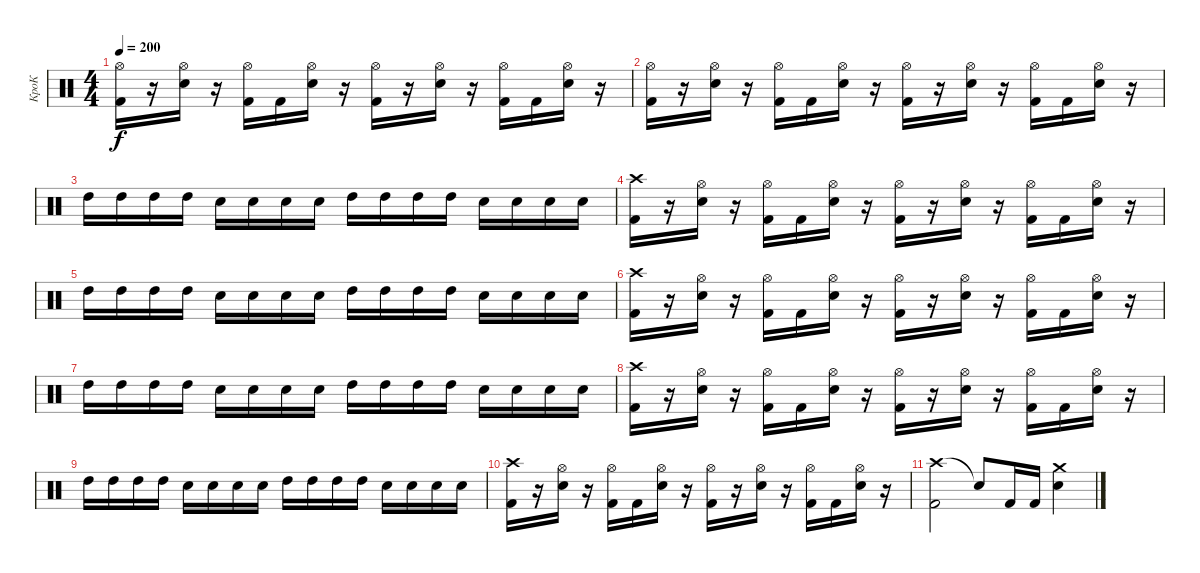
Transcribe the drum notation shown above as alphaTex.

\track ("КроК" "КроК") {instrument percussion}
\staff {score}
\articulation defaults
\ts (4 4)
\tempo 200
\clef neutral
\ks c
("Hi-Hat (open)" "Kick (hit) 2").16{dy f} r.16 ("Hi-Hat (open)" "Electric Snare (hit)").16 r.16 ("Hi-Hat (open)" "Kick (hit) 2").16 "Kick (hit) 2".16 ("Hi-Hat (open)" "Electric Snare (hit)").16 r.16 ("Hi-Hat (open)" "Kick (hit) 2").16 r.16 ("Hi-Hat (open)" "Electric Snare (hit)").16 r.16 ("Hi-Hat (open)" "Kick (hit) 2").16 "Kick (hit) 2".16 ("Hi-Hat (open)" "Electric Snare (hit)").16 r.16 |
("Hi-Hat (open)" "Kick (hit) 2").16 r.16 ("Hi-Hat (open)" "Electric Snare (hit)").16 r.16 ("Hi-Hat (open)" "Kick (hit) 2").16 "Kick (hit) 2".16 ("Hi-Hat (open)" "Electric Snare (hit)").16 r.16 ("Hi-Hat (open)" "Kick (hit) 2").16 r.16 ("Hi-Hat (open)" "Electric Snare (hit)").16 r.16 ("Hi-Hat (open)" "Kick (hit) 2").16 "Kick (hit) 2".16 ("Hi-Hat (open)" "Electric Snare (hit)").16 r.16 |
"High Tom (hit)".16 "High Tom (hit)".16 "High Tom (hit)".16 "High Tom (hit)".16 "Electric Snare (hit)".16 "Electric Snare (hit)".16 "Electric Snare (hit)".16 "Electric Snare (hit)".16 "High Tom (hit)".16 "High Tom (hit)".16 "High Tom (hit)".16 "High Tom (hit)".16 "Electric Snare (hit)".16 "Electric Snare (hit)".16 "Electric Snare (hit)".16 "Electric Snare (hit)".16 |
("Crash high (hit)" "Kick (hit) 2").16 r.16 ("Hi-Hat (open)" "Electric Snare (hit)").16 r.16 ("Hi-Hat (open)" "Kick (hit) 2").16 "Kick (hit) 2".16 ("Hi-Hat (open)" "Electric Snare (hit)").16 r.16 ("Hi-Hat (open)" "Kick (hit) 2").16 r.16 ("Hi-Hat (open)" "Electric Snare (hit)").16 r.16 ("Hi-Hat (open)" "Kick (hit) 2").16 "Kick (hit) 2".16 ("Hi-Hat (open)" "Electric Snare (hit)").16 r.16 |
"High Tom (hit)".16 "High Tom (hit)".16 "High Tom (hit)".16 "High Tom (hit)".16 "Electric Snare (hit)".16 "Electric Snare (hit)".16 "Electric Snare (hit)".16 "Electric Snare (hit)".16 "High Tom (hit)".16 "High Tom (hit)".16 "High Tom (hit)".16 "High Tom (hit)".16 "Electric Snare (hit)".16 "Electric Snare (hit)".16 "Electric Snare (hit)".16 "Electric Snare (hit)".16 |
("Crash high (hit)" "Kick (hit) 2").16 r.16 ("Hi-Hat (open)" "Electric Snare (hit)").16 r.16 ("Hi-Hat (open)" "Kick (hit) 2").16 "Kick (hit) 2".16 ("Hi-Hat (open)" "Electric Snare (hit)").16 r.16 ("Hi-Hat (open)" "Kick (hit) 2").16 r.16 ("Hi-Hat (open)" "Electric Snare (hit)").16 r.16 ("Hi-Hat (open)" "Kick (hit) 2").16 "Kick (hit) 2".16 ("Hi-Hat (open)" "Electric Snare (hit)").16 r.16 |
"High Tom (hit)".16 "High Tom (hit)".16 "High Tom (hit)".16 "High Tom (hit)".16 "Electric Snare (hit)".16 "Electric Snare (hit)".16 "Electric Snare (hit)".16 "Electric Snare (hit)".16 "High Tom (hit)".16 "High Tom (hit)".16 "High Tom (hit)".16 "High Tom (hit)".16 "Electric Snare (hit)".16 "Electric Snare (hit)".16 "Electric Snare (hit)".16 "Electric Snare (hit)".16 |
("Crash high (hit)" "Kick (hit) 2").16 r.16 ("Hi-Hat (open)" "Electric Snare (hit)").16 r.16 ("Hi-Hat (open)" "Kick (hit) 2").16 "Kick (hit) 2".16 ("Hi-Hat (open)" "Electric Snare (hit)").16 r.16 ("Hi-Hat (open)" "Kick (hit) 2").16 r.16 ("Hi-Hat (open)" "Electric Snare (hit)").16 r.16 ("Hi-Hat (open)" "Kick (hit) 2").16 "Kick (hit) 2".16 ("Hi-Hat (open)" "Electric Snare (hit)").16 r.16 |
"High Tom (hit)".16 "High Tom (hit)".16 "High Tom (hit)".16 "High Tom (hit)".16 "Electric Snare (hit)".16 "Electric Snare (hit)".16 "Electric Snare (hit)".16 "Electric Snare (hit)".16 "High Tom (hit)".16 "High Tom (hit)".16 "High Tom (hit)".16 "High Tom (hit)".16 "Electric Snare (hit)".16 "Electric Snare (hit)".16 "Electric Snare (hit)".16 "Electric Snare (hit)".16 |
("Crash high (hit)" "Kick (hit) 2").16 r.16 ("Hi-Hat (open)" "Electric Snare (hit)").16 r.16 ("Hi-Hat (open)" "Kick (hit) 2").16 "Kick (hit) 2".16 ("Hi-Hat (open)" "Electric Snare (hit)").16 r.16 ("Hi-Hat (open)" "Kick (hit) 2").16 r.16 ("Hi-Hat (open)" "Electric Snare (hit)").16 r.16 ("Hi-Hat (open)" "Kick (hit) 2").16 "Kick (hit) 2".16 ("Hi-Hat (open)" "Electric Snare (hit)").16 r.16 |
("Crash high (hit)" "Kick (hit) 2").2 "Snare (hit)"{t}.8 "Kick (hit) 2".16 "Kick (hit) 2".16 ("Crash medium (hit)" "Electric Snare (hit)").4
